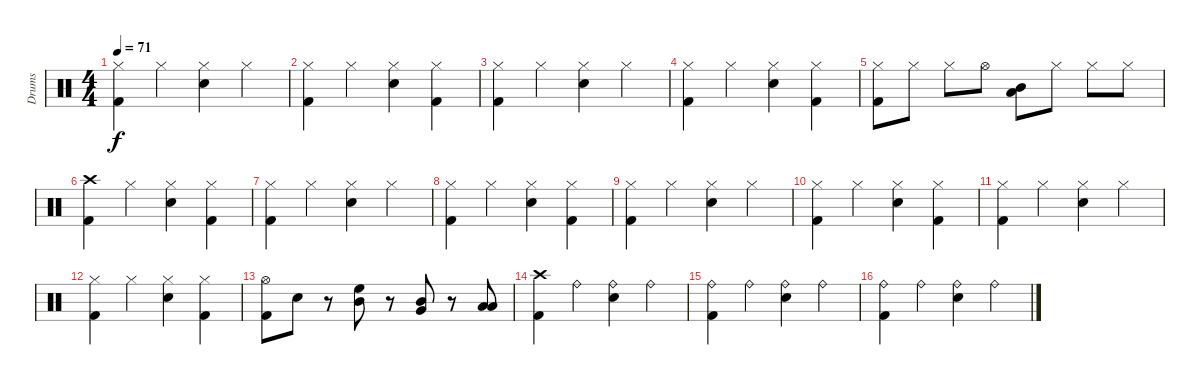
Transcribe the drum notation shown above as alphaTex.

\track ("Drums" "Drums") {instrument percussion}
\staff {score}
\articulation defaults
\ts (4 4)
\tempo 71
\clef neutral
\ks c
("Hi-Hat (closed)" "Kick (hit) 2").4{dy f} "Hi-Hat (closed)".4 ("Hi-Hat (closed)" "Snare (hit) 2").4 "Hi-Hat (closed)".4 |
("Hi-Hat (closed)" "Kick (hit) 2").4 "Hi-Hat (closed)".4 ("Hi-Hat (closed)" "Snare (hit) 2").4 ("Hi-Hat (closed)" "Kick (hit) 2").4 |
("Hi-Hat (closed)" "Kick (hit) 2").4 "Hi-Hat (closed)".4 ("Hi-Hat (closed)" "Snare (hit) 2").4 "Hi-Hat (closed)".4 |
("Hi-Hat (closed)" "Kick (hit) 2").4 "Hi-Hat (closed)".4 ("Hi-Hat (closed)" "Snare (hit) 2").4 ("Hi-Hat (closed)" "Kick (hit) 2").4 |
("Hi-Hat (closed)" "Kick (hit) 2").8 "Hi-Hat (closed)".8 "Hi-Hat (closed)".8 "Hi-Hat (open)".8 ("Mid Tom (hit)" "Low Tom (hit)").8 "Hi-Hat (closed)".8 "Hi-Hat (closed)".8 "Hi-Hat (closed)".8 |
("Crash high (hit)" "Kick (hit) 2").4 "Hi-Hat (closed)".4 ("Hi-Hat (closed)" "Snare (hit) 2").4 ("Hi-Hat (closed)" "Kick (hit) 2").4 |
("Hi-Hat (closed)" "Kick (hit) 2").4 "Hi-Hat (closed)".4 ("Hi-Hat (closed)" "Snare (hit) 2").4 "Hi-Hat (closed)".4 |
("Hi-Hat (closed)" "Kick (hit) 2").4 "Hi-Hat (closed)".4 ("Hi-Hat (closed)" "Snare (hit) 2").4 ("Hi-Hat (closed)" "Kick (hit) 2").4 |
("Hi-Hat (closed)" "Kick (hit) 2").4 "Hi-Hat (closed)".4 ("Hi-Hat (closed)" "Snare (hit) 2").4 "Hi-Hat (closed)".4 |
("Hi-Hat (closed)" "Kick (hit) 2").4 "Hi-Hat (closed)".4 ("Hi-Hat (closed)" "Snare (hit) 2").4 ("Hi-Hat (closed)" "Kick (hit) 2").4 |
("Hi-Hat (closed)" "Kick (hit) 2").4 "Hi-Hat (closed)".4 ("Hi-Hat (closed)" "Snare (hit) 2").4 "Hi-Hat (closed)".4 |
("Hi-Hat (closed)" "Kick (hit) 2").4 "Hi-Hat (closed)".4 ("Hi-Hat (closed)" "Snare (hit) 2").4 ("Hi-Hat (closed)" "Kick (hit) 2").4 |
("Hi-Hat (open)" "Kick (hit) 2").8 "Snare (hit) 2".8 r.8 ("Mid Tom (hit)" "High Floor Tom (hit)").8 r.8 ("Very Low Tom (hit)" "Mid Tom (hit)").8 r.8 ("Low Floor Tom (hit)" "Low Tom (hit)").8 |
("Crash high (hit)" "Kick (hit) 2").4 "Ride (bell)".4 ("Ride (bell)" "Snare (hit) 2").4 "Ride (bell)".4 |
("Ride (bell)" "Kick (hit) 2").4 "Ride (bell)".4 ("Ride (bell)" "Snare (hit) 2").4 "Ride (bell)".4 |
("Ride (bell)" "Kick (hit) 2").4 "Ride (bell)".4 ("Ride (bell)" "Snare (hit) 2").4 "Ride (bell)".4
